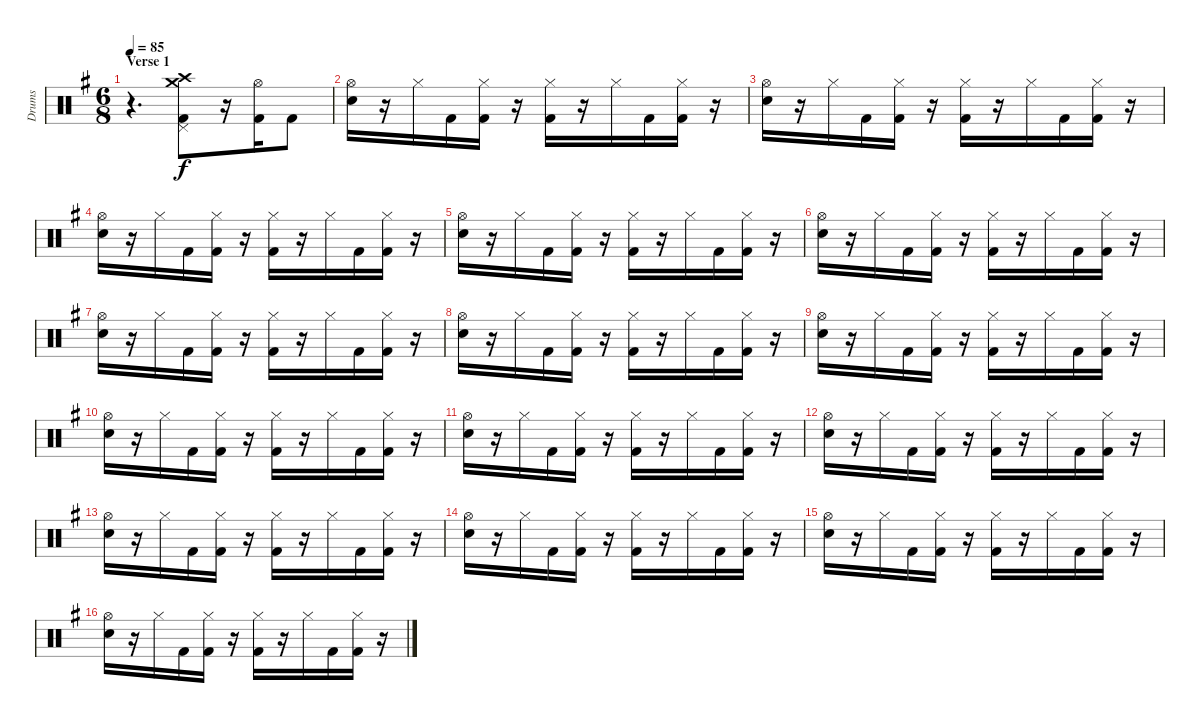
\track ("Drums" "Drums") {instrument percussion}
\staff {score}
\articulation defaults
\ts (6 8)
\section ("" "Verse 1")
\tempo 85
\clef neutral
\ks eminor
r.4{d dy f} ("Crash medium (hit)" "Crash high (hit)" "Pedal Hi-Hat (hit)" "Kick (hit) 2").8 r.16 ("Hi-Hat (open)" "Kick (hit) 2").16 "Kick (hit) 2".8 |
("Hi-Hat (open)" "Electric Snare (hit)").16 r.16 "Hi-Hat (closed)".16 "Kick (hit) 2".16 ("Hi-Hat (closed)" "Kick (hit) 2").16 r.16 ("Hi-Hat (closed)" "Kick (hit) 2").16 r.16 "Hi-Hat (closed)".16 "Kick (hit) 2".16 ("Hi-Hat (closed)" "Kick (hit) 2").16 r.16 |
("Hi-Hat (open)" "Electric Snare (hit)").16 r.16 "Hi-Hat (closed)".16 "Kick (hit) 2".16 ("Hi-Hat (closed)" "Kick (hit) 2").16 r.16 ("Hi-Hat (closed)" "Kick (hit) 2").16 r.16 "Hi-Hat (closed)".16 "Kick (hit) 2".16 ("Hi-Hat (closed)" "Kick (hit) 2").16 r.16 |
("Hi-Hat (open)" "Electric Snare (hit)").16 r.16 "Hi-Hat (closed)".16 "Kick (hit) 2".16 ("Hi-Hat (closed)" "Kick (hit) 2").16 r.16 ("Hi-Hat (closed)" "Kick (hit) 2").16 r.16 "Hi-Hat (closed)".16 "Kick (hit) 2".16 ("Hi-Hat (closed)" "Kick (hit) 2").16 r.16 |
("Hi-Hat (open)" "Electric Snare (hit)").16 r.16 "Hi-Hat (closed)".16 "Kick (hit) 2".16 ("Hi-Hat (closed)" "Kick (hit) 2").16 r.16 ("Hi-Hat (closed)" "Kick (hit) 2").16 r.16 "Hi-Hat (closed)".16 "Kick (hit) 2".16 ("Hi-Hat (closed)" "Kick (hit) 2").16 r.16 |
("Hi-Hat (open)" "Electric Snare (hit)").16 r.16 "Hi-Hat (closed)".16 "Kick (hit) 2".16 ("Hi-Hat (closed)" "Kick (hit) 2").16 r.16 ("Hi-Hat (closed)" "Kick (hit) 2").16 r.16 "Hi-Hat (closed)".16 "Kick (hit) 2".16 ("Hi-Hat (closed)" "Kick (hit) 2").16 r.16 |
("Hi-Hat (open)" "Electric Snare (hit)").16 r.16 "Hi-Hat (closed)".16 "Kick (hit) 2".16 ("Hi-Hat (closed)" "Kick (hit) 2").16 r.16 ("Hi-Hat (closed)" "Kick (hit) 2").16 r.16 "Hi-Hat (closed)".16 "Kick (hit) 2".16 ("Hi-Hat (closed)" "Kick (hit) 2").16 r.16 |
("Hi-Hat (open)" "Electric Snare (hit)").16 r.16 "Hi-Hat (closed)".16 "Kick (hit) 2".16 ("Hi-Hat (closed)" "Kick (hit) 2").16 r.16 ("Hi-Hat (closed)" "Kick (hit) 2").16 r.16 "Hi-Hat (closed)".16 "Kick (hit) 2".16 ("Hi-Hat (closed)" "Kick (hit) 2").16 r.16 |
("Hi-Hat (open)" "Electric Snare (hit)").16 r.16 "Hi-Hat (closed)".16 "Kick (hit) 2".16 ("Hi-Hat (closed)" "Kick (hit) 2").16 r.16 ("Hi-Hat (closed)" "Kick (hit) 2").16 r.16 "Hi-Hat (closed)".16 "Kick (hit) 2".16 ("Hi-Hat (closed)" "Kick (hit) 2").16 r.16 |
("Hi-Hat (open)" "Electric Snare (hit)").16 r.16 "Hi-Hat (closed)".16 "Kick (hit) 2".16 ("Hi-Hat (closed)" "Kick (hit) 2").16 r.16 ("Hi-Hat (closed)" "Kick (hit) 2").16 r.16 "Hi-Hat (closed)".16 "Kick (hit) 2".16 ("Hi-Hat (closed)" "Kick (hit) 2").16 r.16 |
("Hi-Hat (open)" "Electric Snare (hit)").16 r.16 "Hi-Hat (closed)".16 "Kick (hit) 2".16 ("Hi-Hat (closed)" "Kick (hit) 2").16 r.16 ("Hi-Hat (closed)" "Kick (hit) 2").16 r.16 "Hi-Hat (closed)".16 "Kick (hit) 2".16 ("Hi-Hat (closed)" "Kick (hit) 2").16 r.16 |
("Hi-Hat (open)" "Electric Snare (hit)").16 r.16 "Hi-Hat (closed)".16 "Kick (hit) 2".16 ("Hi-Hat (closed)" "Kick (hit) 2").16 r.16 ("Hi-Hat (closed)" "Kick (hit) 2").16 r.16 "Hi-Hat (closed)".16 "Kick (hit) 2".16 ("Hi-Hat (closed)" "Kick (hit) 2").16 r.16 |
("Hi-Hat (open)" "Electric Snare (hit)").16 r.16 "Hi-Hat (closed)".16 "Kick (hit) 2".16 ("Hi-Hat (closed)" "Kick (hit) 2").16 r.16 ("Hi-Hat (closed)" "Kick (hit) 2").16 r.16 "Hi-Hat (closed)".16 "Kick (hit) 2".16 ("Hi-Hat (closed)" "Kick (hit) 2").16 r.16 |
("Hi-Hat (open)" "Electric Snare (hit)").16 r.16 "Hi-Hat (closed)".16 "Kick (hit) 2".16 ("Hi-Hat (closed)" "Kick (hit) 2").16 r.16 ("Hi-Hat (closed)" "Kick (hit) 2").16 r.16 "Hi-Hat (closed)".16 "Kick (hit) 2".16 ("Hi-Hat (closed)" "Kick (hit) 2").16 r.16 |
("Hi-Hat (open)" "Electric Snare (hit)").16 r.16 "Hi-Hat (closed)".16 "Kick (hit) 2".16 ("Hi-Hat (closed)" "Kick (hit) 2").16 r.16 ("Hi-Hat (closed)" "Kick (hit) 2").16 r.16 "Hi-Hat (closed)".16 "Kick (hit) 2".16 ("Hi-Hat (closed)" "Kick (hit) 2").16 r.16 |
("Hi-Hat (open)" "Electric Snare (hit)").16 r.16 "Hi-Hat (closed)".16 "Kick (hit) 2".16 ("Hi-Hat (closed)" "Kick (hit) 2").16 r.16 ("Hi-Hat (closed)" "Kick (hit) 2").16 r.16 "Hi-Hat (closed)".16 "Kick (hit) 2".16 ("Hi-Hat (closed)" "Kick (hit) 2").16 r.16
